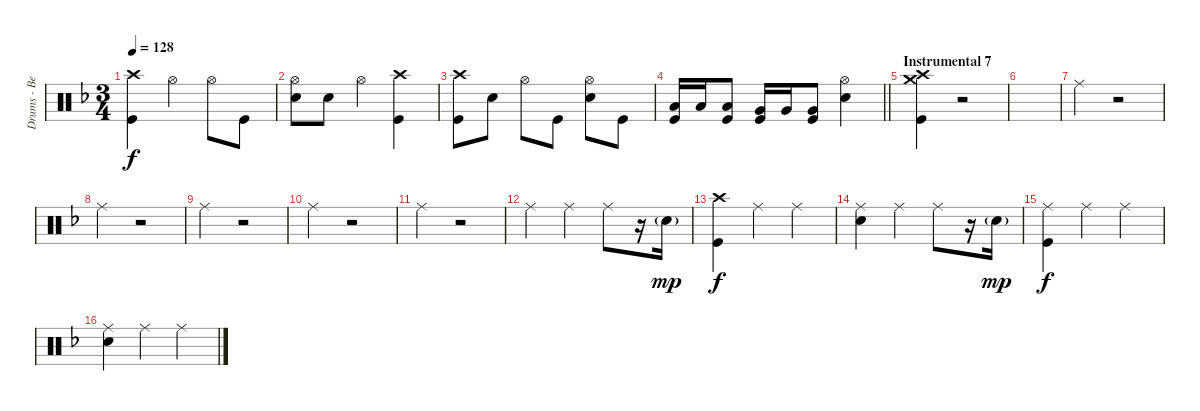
\track ("Drums - Ben Johnston" "Drums - Be") {instrument percussion}
\staff {score}
\articulation defaults
\ts (3 4)
\tempo 128
\clef neutral
\ks dminor
("Crash high (hit)" "Kick (hit)").4{dy f} "Hi-Hat (open)".4 "Hi-Hat (open)".8 "Kick (hit)".8 |
("Hi-Hat (open)" "Snare (hit) 2").8 "Snare (hit) 2".8 "Hi-Hat (open)".4 ("Crash high (hit)" "Kick (hit)").4 |
("Crash high (hit)" "Kick (hit)").8 "Snare (hit) 2".8 "Hi-Hat (open)".8 "Kick (hit)".8 ("Hi-Hat (open)" "Snare (hit) 2").8 "Kick (hit)".8 |
\barLineRight lightlight
("Low Tom (hit)" "Kick (hit)").16 "Low Tom (hit)".16 ("Low Tom (hit)" "Kick (hit)").8 ("Very Low Tom (hit)" "Kick (hit)").16 "Very Low Tom (hit)".16 ("Very Low Tom (hit)" "Kick (hit)").8 ("Hi-Hat (open)" "Snare (hit) 2").4 |
\section ("" "Instrumental 7")
("Crash high (hit)" "Crash medium (hit)" "Kick (hit)").4 r.2 |
|
"Ride (middle)".4 r.2 |
"Ride (middle)".4 r.2 |
"Ride (middle)".4 r.2 |
"Ride (middle)".4 r.2 |
"Ride (middle)".4 r.2 |
"Ride (middle)".4 "Ride (middle)".4 "Ride (middle)".8 r.16 "Snare (hit) 2"{g}.16{dy mp} |
("Crash high (hit)" "Kick (hit)").4{dy f} "Ride (middle)".4 "Ride (middle)".4 |
("Ride (middle)" "Snare (hit) 2").4 "Ride (middle)".4 "Ride (middle)".8 r.16 "Snare (hit) 2"{g}.16{dy mp} |
("Ride (middle)" "Kick (hit)").4{dy f} "Ride (middle)".4 "Ride (middle)".4 |
("Ride (middle)" "Snare (hit) 2").4 "Ride (middle)".4 "Ride (middle)".4
